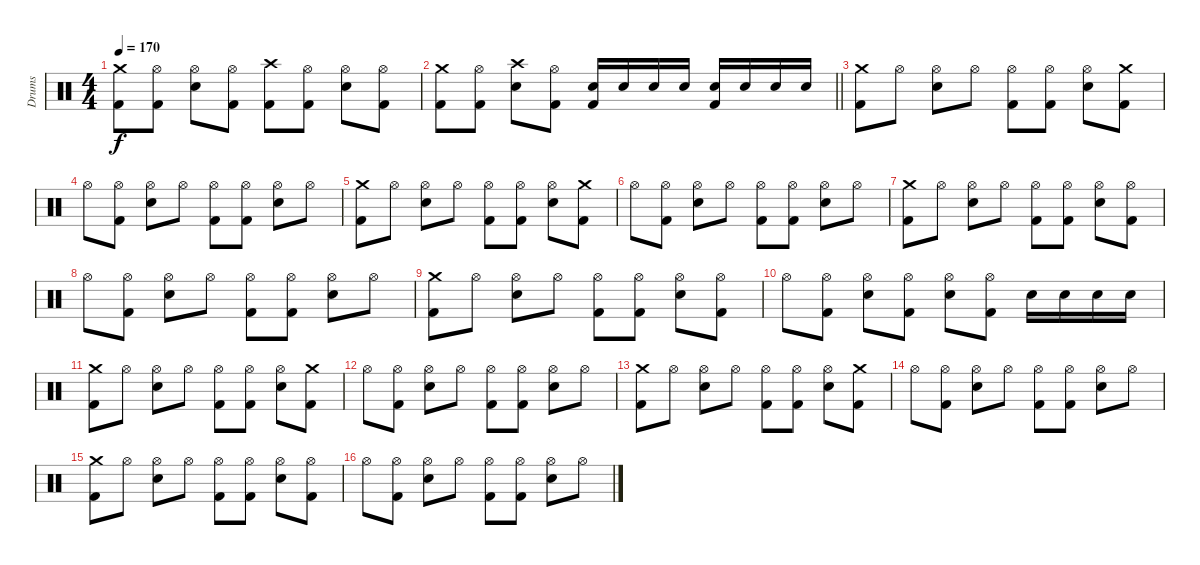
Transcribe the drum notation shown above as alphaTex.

\track ("Drums" "Drums") {instrument percussion}
\staff {score}
\articulation defaults
\ts (4 4)
\tempo 170
\clef neutral
\ks c
("Crash medium (hit)" "Kick (hit) 2").8{dy f} ("Hi-Hat (open)" "Kick (hit) 2").8 ("Hi-Hat (open)" "Electric Snare (hit)").8 ("Hi-Hat (open)" "Kick (hit) 2").8 ("Crash high (hit)" "Kick (hit) 2").8 ("Hi-Hat (open)" "Kick (hit) 2").8 ("Hi-Hat (open)" "Electric Snare (hit)").8 ("Hi-Hat (open)" "Kick (hit) 2").8 |
\barLineRight lightlight
("Crash medium (hit)" "Kick (hit) 2").8 ("Hi-Hat (open)" "Kick (hit) 2").8 ("Crash high (hit)" "Electric Snare (hit)").8 ("Hi-Hat (open)" "Kick (hit) 2").8 ("Electric Snare (hit)" "Kick (hit) 2").16 "Electric Snare (hit)".16 "Electric Snare (hit)".16 "Electric Snare (hit)".16 ("Electric Snare (hit)" "Kick (hit) 2").16 "Electric Snare (hit)".16 "Electric Snare (hit)".16 "Electric Snare (hit)".16 |
("Crash medium (hit)" "Kick (hit) 2").8 "Hi-Hat (open)".8 ("Hi-Hat (open)" "Electric Snare (hit)").8 "Hi-Hat (open)".8 ("Hi-Hat (open)" "Kick (hit) 2").8 ("Hi-Hat (open)" "Kick (hit) 2").8 ("Hi-Hat (open)" "Electric Snare (hit)").8 ("Crash medium (hit)" "Kick (hit) 2").8 |
"Hi-Hat (open)".8 ("Hi-Hat (open)" "Kick (hit) 2").8 ("Hi-Hat (open)" "Electric Snare (hit)").8 "Hi-Hat (open)".8 ("Hi-Hat (open)" "Kick (hit) 2").8 ("Hi-Hat (open)" "Kick (hit) 2").8 ("Hi-Hat (open)" "Electric Snare (hit)").8 "Hi-Hat (open)".8 |
("Crash medium (hit)" "Kick (hit) 2").8 "Hi-Hat (open)".8 ("Hi-Hat (open)" "Electric Snare (hit)").8 "Hi-Hat (open)".8 ("Hi-Hat (open)" "Kick (hit) 2").8 ("Hi-Hat (open)" "Kick (hit) 2").8 ("Hi-Hat (open)" "Electric Snare (hit)").8 ("Crash medium (hit)" "Kick (hit) 2").8 |
"Hi-Hat (open)".8 ("Hi-Hat (open)" "Kick (hit) 2").8 ("Hi-Hat (open)" "Electric Snare (hit)").8 "Hi-Hat (open)".8 ("Hi-Hat (open)" "Kick (hit) 2").8 ("Hi-Hat (open)" "Kick (hit) 2").8 ("Hi-Hat (open)" "Electric Snare (hit)").8 "Hi-Hat (open)".8 |
("Crash medium (hit)" "Kick (hit) 2").8 "Hi-Hat (open)".8 ("Hi-Hat (open)" "Electric Snare (hit)").8 "Hi-Hat (open)".8 ("Hi-Hat (open)" "Kick (hit) 2").8 ("Hi-Hat (open)" "Kick (hit) 2").8 ("Hi-Hat (open)" "Electric Snare (hit)").8 ("Hi-Hat (open)" "Kick (hit) 2").8 |
"Hi-Hat (open)".8 ("Hi-Hat (open)" "Kick (hit) 2").8 ("Hi-Hat (open)" "Electric Snare (hit)").8 "Hi-Hat (open)".8 ("Hi-Hat (open)" "Kick (hit) 2").8 ("Hi-Hat (open)" "Kick (hit) 2").8 ("Hi-Hat (open)" "Electric Snare (hit)").8 "Hi-Hat (open)".8 |
("Crash medium (hit)" "Kick (hit) 2").8 "Hi-Hat (open)".8 ("Hi-Hat (open)" "Electric Snare (hit)").8 "Hi-Hat (open)".8 ("Hi-Hat (open)" "Kick (hit) 2").8 ("Hi-Hat (open)" "Kick (hit) 2").8 ("Hi-Hat (open)" "Electric Snare (hit)").8 ("Hi-Hat (open)" "Kick (hit) 2").8 |
"Hi-Hat (open)".8 ("Hi-Hat (open)" "Kick (hit) 2").8 ("Hi-Hat (open)" "Electric Snare (hit)").8 ("Hi-Hat (open)" "Kick (hit) 2").8 ("Hi-Hat (open)" "Electric Snare (hit)").8 ("Hi-Hat (open)" "Kick (hit) 2").8 "Electric Snare (hit)".16 "Electric Snare (hit)".16 "Electric Snare (hit)".16 "Electric Snare (hit)".16 |
("Crash medium (hit)" "Kick (hit) 2").8 "Hi-Hat (open)".8 ("Hi-Hat (open)" "Electric Snare (hit)").8 "Hi-Hat (open)".8 ("Hi-Hat (open)" "Kick (hit) 2").8 ("Hi-Hat (open)" "Kick (hit) 2").8 ("Hi-Hat (open)" "Electric Snare (hit)").8 ("Crash medium (hit)" "Kick (hit) 2").8 |
"Hi-Hat (open)".8 ("Hi-Hat (open)" "Kick (hit) 2").8 ("Hi-Hat (open)" "Electric Snare (hit)").8 "Hi-Hat (open)".8 ("Hi-Hat (open)" "Kick (hit) 2").8 ("Hi-Hat (open)" "Kick (hit) 2").8 ("Hi-Hat (open)" "Electric Snare (hit)").8 "Hi-Hat (open)".8 |
("Crash medium (hit)" "Kick (hit) 2").8 "Hi-Hat (open)".8 ("Hi-Hat (open)" "Electric Snare (hit)").8 "Hi-Hat (open)".8 ("Hi-Hat (open)" "Kick (hit) 2").8 ("Hi-Hat (open)" "Kick (hit) 2").8 ("Hi-Hat (open)" "Electric Snare (hit)").8 ("Crash medium (hit)" "Kick (hit) 2").8 |
"Hi-Hat (open)".8 ("Hi-Hat (open)" "Kick (hit) 2").8 ("Hi-Hat (open)" "Electric Snare (hit)").8 "Hi-Hat (open)".8 ("Hi-Hat (open)" "Kick (hit) 2").8 ("Hi-Hat (open)" "Kick (hit) 2").8 ("Hi-Hat (open)" "Electric Snare (hit)").8 "Hi-Hat (open)".8 |
("Crash medium (hit)" "Kick (hit) 2").8 "Hi-Hat (open)".8 ("Hi-Hat (open)" "Electric Snare (hit)").8 "Hi-Hat (open)".8 ("Hi-Hat (open)" "Kick (hit) 2").8 ("Hi-Hat (open)" "Kick (hit) 2").8 ("Hi-Hat (open)" "Electric Snare (hit)").8 ("Hi-Hat (open)" "Kick (hit) 2").8 |
"Hi-Hat (open)".8 ("Hi-Hat (open)" "Kick (hit) 2").8 ("Hi-Hat (open)" "Electric Snare (hit)").8 "Hi-Hat (open)".8 ("Hi-Hat (open)" "Kick (hit) 2").8 ("Hi-Hat (open)" "Kick (hit) 2").8 ("Hi-Hat (open)" "Electric Snare (hit)").8 "Hi-Hat (open)".8
